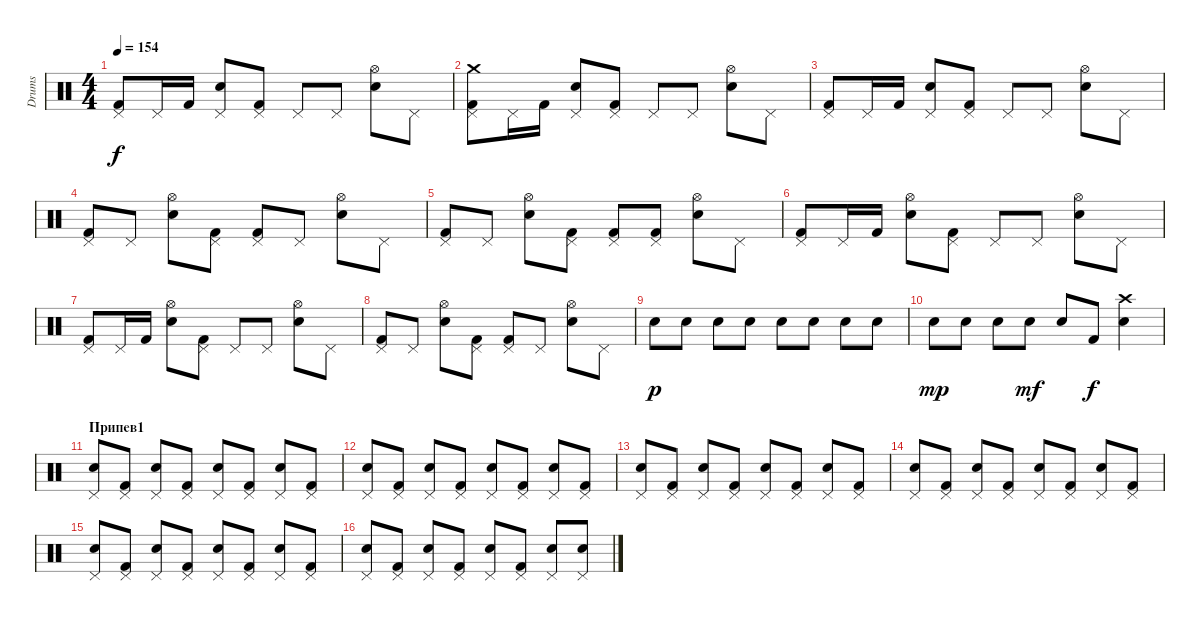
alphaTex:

\track ("Drums" "Drums") {instrument percussion}
\staff {score}
\articulation defaults
\ts (4 4)
\tempo 154
\clef neutral
\ks c
("Pedal Hi-Hat (hit)" "Kick (hit) 2").8{dy f} "Pedal Hi-Hat (hit)".16 "Kick (hit) 2".16 ("Pedal Hi-Hat (hit)" "Electric Snare (hit)").8 ("Pedal Hi-Hat (hit)" "Kick (hit) 2").8 "Pedal Hi-Hat (hit)".8 "Pedal Hi-Hat (hit)".8 ("Hi-Hat (open)" "Electric Snare (hit)").8 "Pedal Hi-Hat (hit)".8 |
("Crash medium (hit)" "Pedal Hi-Hat (hit)" "Kick (hit) 2").8 "Pedal Hi-Hat (hit)".16 "Kick (hit) 2".16 ("Pedal Hi-Hat (hit)" "Electric Snare (hit)").8 ("Pedal Hi-Hat (hit)" "Kick (hit) 2").8 "Pedal Hi-Hat (hit)".8 "Pedal Hi-Hat (hit)".8 ("Hi-Hat (open)" "Electric Snare (hit)").8 "Pedal Hi-Hat (hit)".8 |
("Pedal Hi-Hat (hit)" "Kick (hit) 2").8 "Pedal Hi-Hat (hit)".16 "Kick (hit) 2".16 ("Pedal Hi-Hat (hit)" "Electric Snare (hit)").8 ("Pedal Hi-Hat (hit)" "Kick (hit) 2").8 "Pedal Hi-Hat (hit)".8 "Pedal Hi-Hat (hit)".8 ("Hi-Hat (open)" "Electric Snare (hit)").8 "Pedal Hi-Hat (hit)".8 |
("Pedal Hi-Hat (hit)" "Kick (hit) 2").8 "Pedal Hi-Hat (hit)".8 ("Hi-Hat (open)" "Electric Snare (hit)").8 ("Pedal Hi-Hat (hit)" "Kick (hit) 2").8 ("Pedal Hi-Hat (hit)" "Kick (hit) 2").8 "Pedal Hi-Hat (hit)".8 ("Hi-Hat (open)" "Electric Snare (hit)").8 "Pedal Hi-Hat (hit)".8 |
("Pedal Hi-Hat (hit)" "Kick (hit) 2").8 "Pedal Hi-Hat (hit)".8 ("Hi-Hat (open)" "Electric Snare (hit)").8 ("Pedal Hi-Hat (hit)" "Kick (hit) 2").8 ("Pedal Hi-Hat (hit)" "Kick (hit) 2").8 ("Pedal Hi-Hat (hit)" "Kick (hit) 2").8 ("Hi-Hat (open)" "Electric Snare (hit)").8 "Pedal Hi-Hat (hit)".8 |
("Pedal Hi-Hat (hit)" "Kick (hit) 2").8 "Pedal Hi-Hat (hit)".16 "Kick (hit) 2".16 ("Hi-Hat (open)" "Electric Snare (hit)").8 ("Pedal Hi-Hat (hit)" "Kick (hit) 2").8 "Pedal Hi-Hat (hit)".8 "Pedal Hi-Hat (hit)".8 ("Hi-Hat (open)" "Electric Snare (hit)").8 "Pedal Hi-Hat (hit)".8 |
("Pedal Hi-Hat (hit)" "Kick (hit) 2").8 "Pedal Hi-Hat (hit)".16 "Kick (hit) 2".16 ("Hi-Hat (open)" "Electric Snare (hit)").8 ("Pedal Hi-Hat (hit)" "Kick (hit) 2").8 "Pedal Hi-Hat (hit)".8 "Pedal Hi-Hat (hit)".8 ("Hi-Hat (open)" "Electric Snare (hit)").8 "Pedal Hi-Hat (hit)".8 |
("Pedal Hi-Hat (hit)" "Kick (hit) 2").8 "Pedal Hi-Hat (hit)".8 ("Hi-Hat (open)" "Electric Snare (hit)").8 ("Pedal Hi-Hat (hit)" "Kick (hit) 2").8 ("Pedal Hi-Hat (hit)" "Kick (hit) 2").8 "Pedal Hi-Hat (hit)".8 ("Hi-Hat (open)" "Electric Snare (hit)").8 "Pedal Hi-Hat (hit)".8 |
"Electric Snare (hit)".8{dy p} "Electric Snare (hit)".8 "Electric Snare (hit)".8 "Electric Snare (hit)".8 "Electric Snare (hit)".8 "Electric Snare (hit)".8 "Electric Snare (hit)".8 "Electric Snare (hit)".8 |
"Electric Snare (hit)".8{dy mp} "Electric Snare (hit)".8 "Electric Snare (hit)".8 "Electric Snare (hit)".8{dy mf} "Electric Snare (hit)".8 "Kick (hit) 2".8{dy f} ("Crash high (hit)" "Electric Snare (hit)").4 |
\section ("" "Припев1")
("Electric Snare (hit)" "Pedal Hi-Hat (hit)").8 ("Kick (hit) 2" "Pedal Hi-Hat (hit)").8 ("Electric Snare (hit)" "Pedal Hi-Hat (hit)").8 ("Kick (hit) 2" "Pedal Hi-Hat (hit)").8 ("Electric Snare (hit)" "Pedal Hi-Hat (hit)").8 ("Kick (hit) 2" "Pedal Hi-Hat (hit)").8 ("Electric Snare (hit)" "Pedal Hi-Hat (hit)").8 ("Kick (hit) 2" "Pedal Hi-Hat (hit)").8 |
("Electric Snare (hit)" "Pedal Hi-Hat (hit)").8 ("Kick (hit) 2" "Pedal Hi-Hat (hit)").8 ("Electric Snare (hit)" "Pedal Hi-Hat (hit)").8 ("Kick (hit) 2" "Pedal Hi-Hat (hit)").8 ("Electric Snare (hit)" "Pedal Hi-Hat (hit)").8 ("Kick (hit) 2" "Pedal Hi-Hat (hit)").8 ("Electric Snare (hit)" "Pedal Hi-Hat (hit)").8 ("Kick (hit) 2" "Pedal Hi-Hat (hit)").8 |
("Electric Snare (hit)" "Pedal Hi-Hat (hit)").8 ("Kick (hit) 2" "Pedal Hi-Hat (hit)").8 ("Electric Snare (hit)" "Pedal Hi-Hat (hit)").8 ("Kick (hit) 2" "Pedal Hi-Hat (hit)").8 ("Electric Snare (hit)" "Pedal Hi-Hat (hit)").8 ("Kick (hit) 2" "Pedal Hi-Hat (hit)").8 ("Electric Snare (hit)" "Pedal Hi-Hat (hit)").8 ("Kick (hit) 2" "Pedal Hi-Hat (hit)").8 |
("Electric Snare (hit)" "Pedal Hi-Hat (hit)").8 ("Kick (hit) 2" "Pedal Hi-Hat (hit)").8 ("Electric Snare (hit)" "Pedal Hi-Hat (hit)").8 ("Kick (hit) 2" "Pedal Hi-Hat (hit)").8 ("Electric Snare (hit)" "Pedal Hi-Hat (hit)").8 ("Kick (hit) 2" "Pedal Hi-Hat (hit)").8 ("Electric Snare (hit)" "Pedal Hi-Hat (hit)").8 ("Kick (hit) 2" "Pedal Hi-Hat (hit)").8 |
("Electric Snare (hit)" "Pedal Hi-Hat (hit)").8 ("Kick (hit) 2" "Pedal Hi-Hat (hit)").8 ("Electric Snare (hit)" "Pedal Hi-Hat (hit)").8 ("Kick (hit) 2" "Pedal Hi-Hat (hit)").8 ("Electric Snare (hit)" "Pedal Hi-Hat (hit)").8 ("Kick (hit) 2" "Pedal Hi-Hat (hit)").8 ("Electric Snare (hit)" "Pedal Hi-Hat (hit)").8 ("Kick (hit) 2" "Pedal Hi-Hat (hit)").8 |
("Electric Snare (hit)" "Pedal Hi-Hat (hit)").8 ("Kick (hit) 2" "Pedal Hi-Hat (hit)").8 ("Electric Snare (hit)" "Pedal Hi-Hat (hit)").8 ("Kick (hit) 2" "Pedal Hi-Hat (hit)").8 ("Electric Snare (hit)" "Pedal Hi-Hat (hit)").8 ("Kick (hit) 2" "Pedal Hi-Hat (hit)").8 ("Electric Snare (hit)" "Pedal Hi-Hat (hit)").8 ("Electric Snare (hit)" "Pedal Hi-Hat (hit)").8
